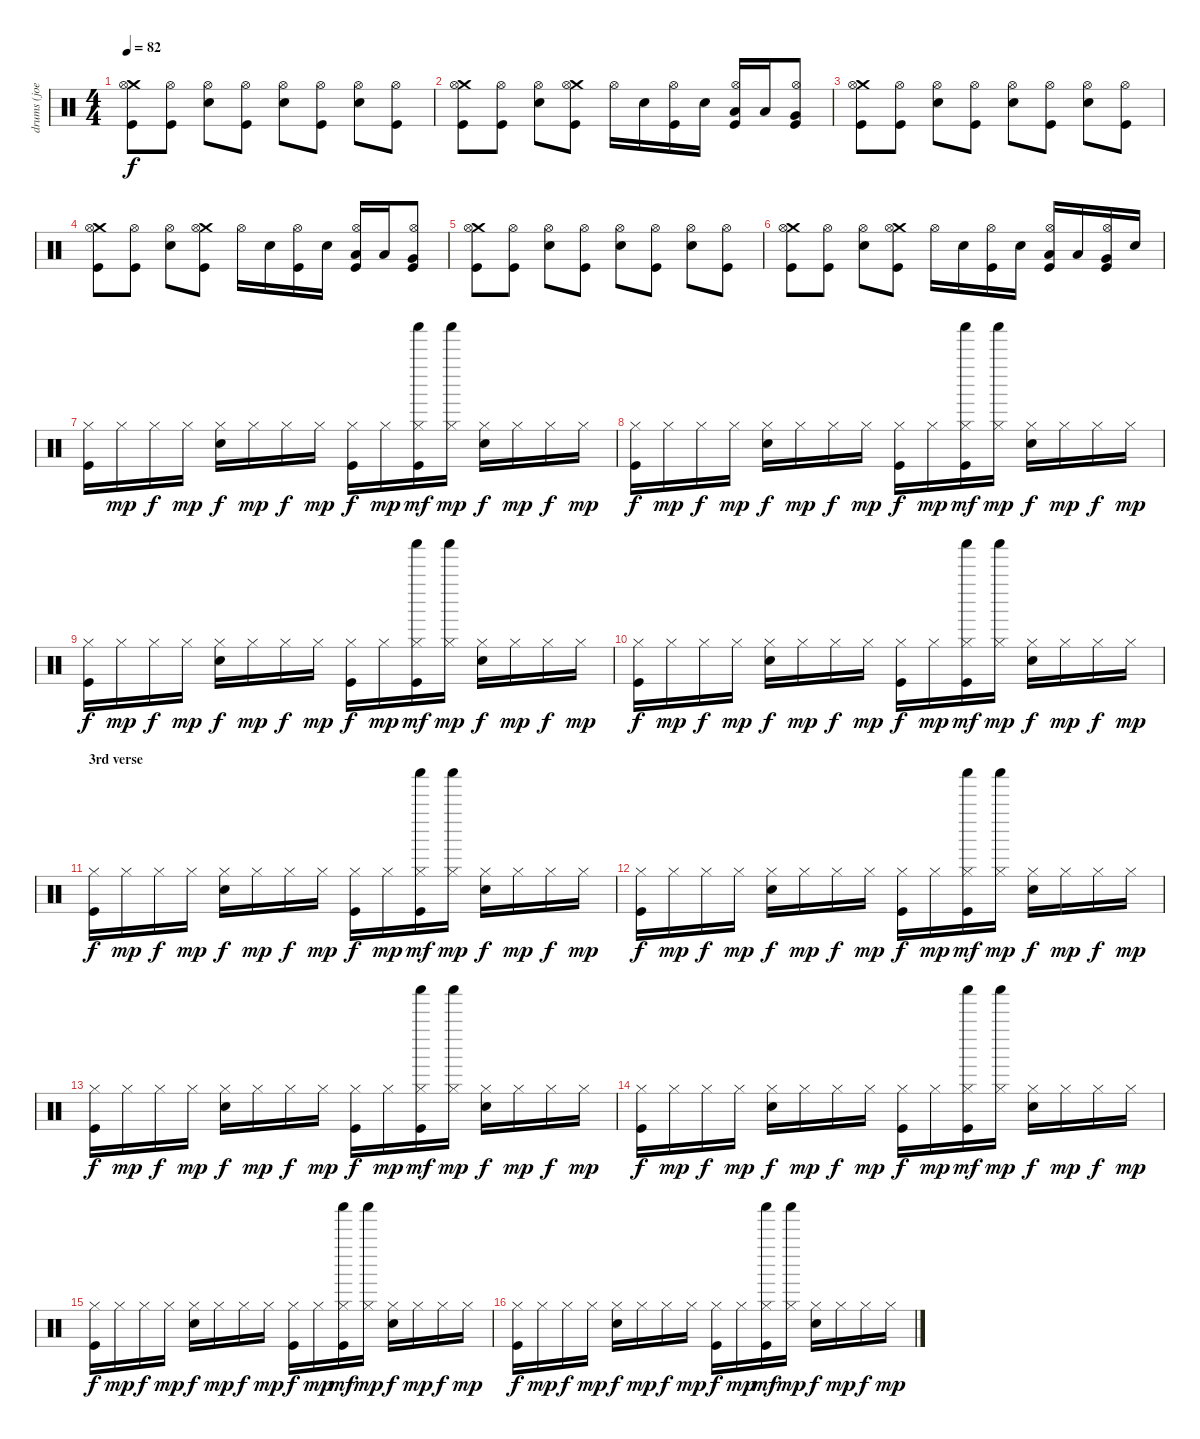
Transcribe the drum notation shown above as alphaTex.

\track ("drums (joey castillo)" "drums (joe") {instrument percussion}
\staff {score}
\articulation defaults
\ts (4 4)
\tempo 82
\clef neutral
\ks c
("Crash medium (hit)" "Kick (hit)" "Hi-Hat (open)").8{dy f} ("Kick (hit)" "Hi-Hat (open)").8 ("Electric Snare (hit)" "Hi-Hat (open)").8 ("Kick (hit)" "Hi-Hat (open)").8 ("Electric Snare (hit)" "Hi-Hat (open)").8 ("Kick (hit)" "Hi-Hat (open)").8 ("Electric Snare (hit)" "Hi-Hat (open)").8 ("Kick (hit)" "Hi-Hat (open)").8 |
("Crash medium (hit)" "Kick (hit)" "Hi-Hat (open)").8 ("Kick (hit)" "Hi-Hat (open)").8 ("Electric Snare (hit)" "Hi-Hat (open)").8 ("Crash medium (hit)" "Kick (hit)" "Hi-Hat (open)").8 "Hi-Hat (open)".16 "Electric Snare (hit)".16 ("Kick (hit)" "Hi-Hat (open)").16 "Electric Snare (hit)".16 ("Low Tom (hit)" "Kick (hit)" "Hi-Hat (open)").16 "Low Tom (hit)".16 ("Very Low Tom (hit)" "Kick (hit)" "Hi-Hat (open)").8 |
("Crash medium (hit)" "Kick (hit)" "Hi-Hat (open)").8 ("Kick (hit)" "Hi-Hat (open)").8 ("Electric Snare (hit)" "Hi-Hat (open)").8 ("Kick (hit)" "Hi-Hat (open)").8 ("Electric Snare (hit)" "Hi-Hat (open)").8 ("Kick (hit)" "Hi-Hat (open)").8 ("Electric Snare (hit)" "Hi-Hat (open)").8 ("Kick (hit)" "Hi-Hat (open)").8 |
("Crash medium (hit)" "Kick (hit)" "Hi-Hat (open)").8 ("Kick (hit)" "Hi-Hat (open)").8 ("Electric Snare (hit)" "Hi-Hat (open)").8 ("Crash medium (hit)" "Kick (hit)" "Hi-Hat (open)").8 "Hi-Hat (open)".16 "Electric Snare (hit)".16 ("Kick (hit)" "Hi-Hat (open)").16 "Electric Snare (hit)".16 ("Low Tom (hit)" "Kick (hit)" "Hi-Hat (open)").16 "Low Tom (hit)".16 ("Very Low Tom (hit)" "Kick (hit)" "Hi-Hat (open)").8 |
("Crash medium (hit)" "Kick (hit)" "Hi-Hat (open)").8 ("Kick (hit)" "Hi-Hat (open)").8 ("Electric Snare (hit)" "Hi-Hat (open)").8 ("Kick (hit)" "Hi-Hat (open)").8 ("Electric Snare (hit)" "Hi-Hat (open)").8 ("Kick (hit)" "Hi-Hat (open)").8 ("Electric Snare (hit)" "Hi-Hat (open)").8 ("Kick (hit)" "Hi-Hat (open)").8 |
("Crash medium (hit)" "Kick (hit)" "Hi-Hat (open)").8 ("Kick (hit)" "Hi-Hat (open)").8 ("Electric Snare (hit)" "Hi-Hat (open)").8 ("Crash medium (hit)" "Kick (hit)" "Hi-Hat (open)").8 "Hi-Hat (open)".16 "Electric Snare (hit)".16 ("Kick (hit)" "Hi-Hat (open)").16 "Electric Snare (hit)".16 ("Low Tom (hit)" "Kick (hit)" "Hi-Hat (open)").16 "Low Tom (hit)".16 ("Very Low Tom (hit)" "Kick (hit)" "Hi-Hat (open)").16 "Electric Snare (hit)".16 |
\section ("" "")
("Kick (hit)" "Hi-Hat (closed)").16 "Hi-Hat (closed)".16{dy mp} "Hi-Hat (closed)".16{dy f} "Hi-Hat (closed)".16{dy mp} ("Electric Snare (hit)" "Hi-Hat (closed)").16{dy f} "Hi-Hat (closed)".16{dy mp} "Hi-Hat (closed)".16{dy f} "Hi-Hat (closed)".16{dy mp} ("Kick (hit)" "Hi-Hat (closed)").16{dy f} "Hi-Hat (closed)".16{dy mp} ("Shaker (hit)" "Kick (hit)" "Hi-Hat (closed)").16{dy mf} ("Shaker (hit)" "Hi-Hat (closed)").16{dy mp} ("Electric Snare (hit)" "Hi-Hat (closed)").16{dy f} "Hi-Hat (closed)".16{dy mp} "Hi-Hat (closed)".16{dy f} "Hi-Hat (closed)".16{dy mp} |
("Kick (hit)" "Hi-Hat (closed)").16{dy f} "Hi-Hat (closed)".16{dy mp} "Hi-Hat (closed)".16{dy f} "Hi-Hat (closed)".16{dy mp} ("Electric Snare (hit)" "Hi-Hat (closed)").16{dy f} "Hi-Hat (closed)".16{dy mp} "Hi-Hat (closed)".16{dy f} "Hi-Hat (closed)".16{dy mp} ("Kick (hit)" "Hi-Hat (closed)").16{dy f} "Hi-Hat (closed)".16{dy mp} ("Shaker (hit)" "Kick (hit)" "Hi-Hat (closed)").16{dy mf} ("Shaker (hit)" "Hi-Hat (closed)").16{dy mp} ("Electric Snare (hit)" "Hi-Hat (closed)").16{dy f} "Hi-Hat (closed)".16{dy mp} "Hi-Hat (closed)".16{dy f} "Hi-Hat (closed)".16{dy mp} |
("Kick (hit)" "Hi-Hat (closed)").16{dy f} "Hi-Hat (closed)".16{dy mp} "Hi-Hat (closed)".16{dy f} "Hi-Hat (closed)".16{dy mp} ("Electric Snare (hit)" "Hi-Hat (closed)").16{dy f} "Hi-Hat (closed)".16{dy mp} "Hi-Hat (closed)".16{dy f} "Hi-Hat (closed)".16{dy mp} ("Kick (hit)" "Hi-Hat (closed)").16{dy f} "Hi-Hat (closed)".16{dy mp} ("Shaker (hit)" "Kick (hit)" "Hi-Hat (closed)").16{dy mf} ("Shaker (hit)" "Hi-Hat (closed)").16{dy mp} ("Electric Snare (hit)" "Hi-Hat (closed)").16{dy f} "Hi-Hat (closed)".16{dy mp} "Hi-Hat (closed)".16{dy f} "Hi-Hat (closed)".16{dy mp} |
("Kick (hit)" "Hi-Hat (closed)").16{dy f} "Hi-Hat (closed)".16{dy mp} "Hi-Hat (closed)".16{dy f} "Hi-Hat (closed)".16{dy mp} ("Electric Snare (hit)" "Hi-Hat (closed)").16{dy f} "Hi-Hat (closed)".16{dy mp} "Hi-Hat (closed)".16{dy f} "Hi-Hat (closed)".16{dy mp} ("Kick (hit)" "Hi-Hat (closed)").16{dy f} "Hi-Hat (closed)".16{dy mp} ("Shaker (hit)" "Kick (hit)" "Hi-Hat (closed)").16{dy mf} ("Shaker (hit)" "Hi-Hat (closed)").16{dy mp} ("Electric Snare (hit)" "Hi-Hat (closed)").16{dy f} "Hi-Hat (closed)".16{dy mp} "Hi-Hat (closed)".16{dy f} "Hi-Hat (closed)".16{dy mp} |
\section ("" "3rd verse")
("Kick (hit)" "Hi-Hat (closed)").16{dy f} "Hi-Hat (closed)".16{dy mp} "Hi-Hat (closed)".16{dy f} "Hi-Hat (closed)".16{dy mp} ("Electric Snare (hit)" "Hi-Hat (closed)").16{dy f} "Hi-Hat (closed)".16{dy mp} "Hi-Hat (closed)".16{dy f} "Hi-Hat (closed)".16{dy mp} ("Kick (hit)" "Hi-Hat (closed)").16{dy f} "Hi-Hat (closed)".16{dy mp} ("Shaker (hit)" "Kick (hit)" "Hi-Hat (closed)").16{dy mf} ("Shaker (hit)" "Hi-Hat (closed)").16{dy mp} ("Electric Snare (hit)" "Hi-Hat (closed)").16{dy f} "Hi-Hat (closed)".16{dy mp} "Hi-Hat (closed)".16{dy f} "Hi-Hat (closed)".16{dy mp} |
("Kick (hit)" "Hi-Hat (closed)").16{dy f} "Hi-Hat (closed)".16{dy mp} "Hi-Hat (closed)".16{dy f} "Hi-Hat (closed)".16{dy mp} ("Electric Snare (hit)" "Hi-Hat (closed)").16{dy f} "Hi-Hat (closed)".16{dy mp} "Hi-Hat (closed)".16{dy f} "Hi-Hat (closed)".16{dy mp} ("Kick (hit)" "Hi-Hat (closed)").16{dy f} "Hi-Hat (closed)".16{dy mp} ("Shaker (hit)" "Kick (hit)" "Hi-Hat (closed)").16{dy mf} ("Shaker (hit)" "Hi-Hat (closed)").16{dy mp} ("Electric Snare (hit)" "Hi-Hat (closed)").16{dy f} "Hi-Hat (closed)".16{dy mp} "Hi-Hat (closed)".16{dy f} "Hi-Hat (closed)".16{dy mp} |
("Kick (hit)" "Hi-Hat (closed)").16{dy f} "Hi-Hat (closed)".16{dy mp} "Hi-Hat (closed)".16{dy f} "Hi-Hat (closed)".16{dy mp} ("Electric Snare (hit)" "Hi-Hat (closed)").16{dy f} "Hi-Hat (closed)".16{dy mp} "Hi-Hat (closed)".16{dy f} "Hi-Hat (closed)".16{dy mp} ("Kick (hit)" "Hi-Hat (closed)").16{dy f} "Hi-Hat (closed)".16{dy mp} ("Shaker (hit)" "Kick (hit)" "Hi-Hat (closed)").16{dy mf} ("Shaker (hit)" "Hi-Hat (closed)").16{dy mp} ("Electric Snare (hit)" "Hi-Hat (closed)").16{dy f} "Hi-Hat (closed)".16{dy mp} "Hi-Hat (closed)".16{dy f} "Hi-Hat (closed)".16{dy mp} |
("Kick (hit)" "Hi-Hat (closed)").16{dy f} "Hi-Hat (closed)".16{dy mp} "Hi-Hat (closed)".16{dy f} "Hi-Hat (closed)".16{dy mp} ("Electric Snare (hit)" "Hi-Hat (closed)").16{dy f} "Hi-Hat (closed)".16{dy mp} "Hi-Hat (closed)".16{dy f} "Hi-Hat (closed)".16{dy mp} ("Kick (hit)" "Hi-Hat (closed)").16{dy f} "Hi-Hat (closed)".16{dy mp} ("Shaker (hit)" "Kick (hit)" "Hi-Hat (closed)").16{dy mf} ("Shaker (hit)" "Hi-Hat (closed)").16{dy mp} ("Electric Snare (hit)" "Hi-Hat (closed)").16{dy f} "Hi-Hat (closed)".16{dy mp} "Hi-Hat (closed)".16{dy f} "Hi-Hat (closed)".16{dy mp} |
("Kick (hit)" "Hi-Hat (closed)").16{dy f} "Hi-Hat (closed)".16{dy mp} "Hi-Hat (closed)".16{dy f} "Hi-Hat (closed)".16{dy mp} ("Electric Snare (hit)" "Hi-Hat (closed)").16{dy f} "Hi-Hat (closed)".16{dy mp} "Hi-Hat (closed)".16{dy f} "Hi-Hat (closed)".16{dy mp} ("Kick (hit)" "Hi-Hat (closed)").16{dy f} "Hi-Hat (closed)".16{dy mp} ("Shaker (hit)" "Kick (hit)" "Hi-Hat (closed)").16{dy mf} ("Shaker (hit)" "Hi-Hat (closed)").16{dy mp} ("Electric Snare (hit)" "Hi-Hat (closed)").16{dy f} "Hi-Hat (closed)".16{dy mp} "Hi-Hat (closed)".16{dy f} "Hi-Hat (closed)".16{dy mp} |
("Kick (hit)" "Hi-Hat (closed)").16{dy f} "Hi-Hat (closed)".16{dy mp} "Hi-Hat (closed)".16{dy f} "Hi-Hat (closed)".16{dy mp} ("Electric Snare (hit)" "Hi-Hat (closed)").16{dy f} "Hi-Hat (closed)".16{dy mp} "Hi-Hat (closed)".16{dy f} "Hi-Hat (closed)".16{dy mp} ("Kick (hit)" "Hi-Hat (closed)").16{dy f} "Hi-Hat (closed)".16{dy mp} ("Shaker (hit)" "Kick (hit)" "Hi-Hat (closed)").16{dy mf} ("Shaker (hit)" "Hi-Hat (closed)").16{dy mp} ("Electric Snare (hit)" "Hi-Hat (closed)").16{dy f} "Hi-Hat (closed)".16{dy mp} "Hi-Hat (closed)".16{dy f} "Hi-Hat (closed)".16{dy mp}
